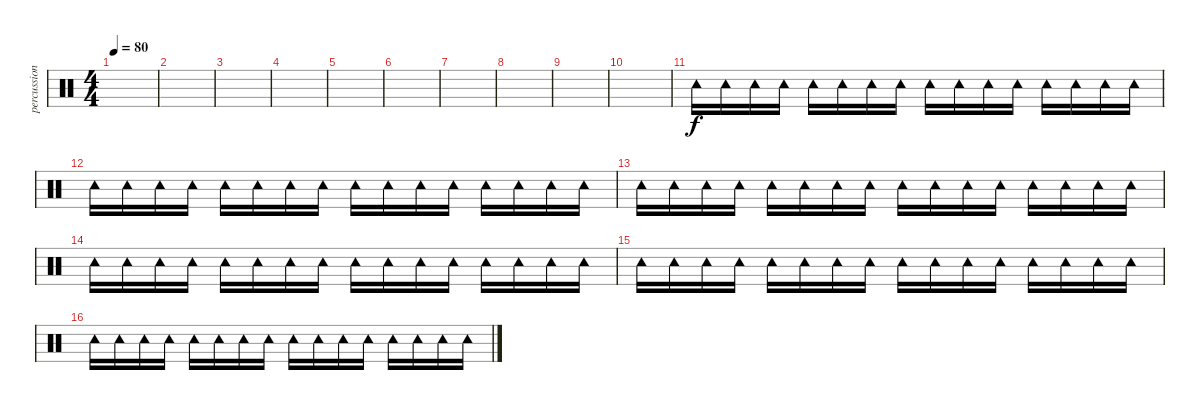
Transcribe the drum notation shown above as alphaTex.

\track ("percussion" "percussion") {instrument percussion}
\staff {score}
\articulation defaults
\ts (4 4)
\tempo 80
\clef neutral
\ks c
|
|
|
|
|
|
|
|
|
|
"Tambourine (hit)".16 "Tambourine (hit)".16 "Tambourine (hit)".16 "Tambourine (hit)".16 "Tambourine (hit)".16 "Tambourine (hit)".16 "Tambourine (hit)".16 "Tambourine (hit)".16 "Tambourine (hit)".16 "Tambourine (hit)".16 "Tambourine (hit)".16 "Tambourine (hit)".16 "Tambourine (hit)".16 "Tambourine (hit)".16 "Tambourine (hit)".16 "Tambourine (hit)".16 |
"Tambourine (hit)".16 "Tambourine (hit)".16 "Tambourine (hit)".16 "Tambourine (hit)".16 "Tambourine (hit)".16 "Tambourine (hit)".16 "Tambourine (hit)".16 "Tambourine (hit)".16 "Tambourine (hit)".16 "Tambourine (hit)".16 "Tambourine (hit)".16 "Tambourine (hit)".16 "Tambourine (hit)".16 "Tambourine (hit)".16 "Tambourine (hit)".16 "Tambourine (hit)".16 |
"Tambourine (hit)".16 "Tambourine (hit)".16 "Tambourine (hit)".16 "Tambourine (hit)".16 "Tambourine (hit)".16 "Tambourine (hit)".16 "Tambourine (hit)".16 "Tambourine (hit)".16 "Tambourine (hit)".16 "Tambourine (hit)".16 "Tambourine (hit)".16 "Tambourine (hit)".16 "Tambourine (hit)".16 "Tambourine (hit)".16 "Tambourine (hit)".16 "Tambourine (hit)".16 |
"Tambourine (hit)".16 "Tambourine (hit)".16 "Tambourine (hit)".16 "Tambourine (hit)".16 "Tambourine (hit)".16 "Tambourine (hit)".16 "Tambourine (hit)".16 "Tambourine (hit)".16 "Tambourine (hit)".16 "Tambourine (hit)".16 "Tambourine (hit)".16 "Tambourine (hit)".16 "Tambourine (hit)".16 "Tambourine (hit)".16 "Tambourine (hit)".16 "Tambourine (hit)".16 |
"Tambourine (hit)".16 "Tambourine (hit)".16 "Tambourine (hit)".16 "Tambourine (hit)".16 "Tambourine (hit)".16 "Tambourine (hit)".16 "Tambourine (hit)".16 "Tambourine (hit)".16 "Tambourine (hit)".16 "Tambourine (hit)".16 "Tambourine (hit)".16 "Tambourine (hit)".16 "Tambourine (hit)".16 "Tambourine (hit)".16 "Tambourine (hit)".16 "Tambourine (hit)".16 |
"Tambourine (hit)".16 "Tambourine (hit)".16 "Tambourine (hit)".16 "Tambourine (hit)".16 "Tambourine (hit)".16 "Tambourine (hit)".16 "Tambourine (hit)".16 "Tambourine (hit)".16 "Tambourine (hit)".16 "Tambourine (hit)".16 "Tambourine (hit)".16 "Tambourine (hit)".16 "Tambourine (hit)".16 "Tambourine (hit)".16 "Tambourine (hit)".16 "Tambourine (hit)".16
